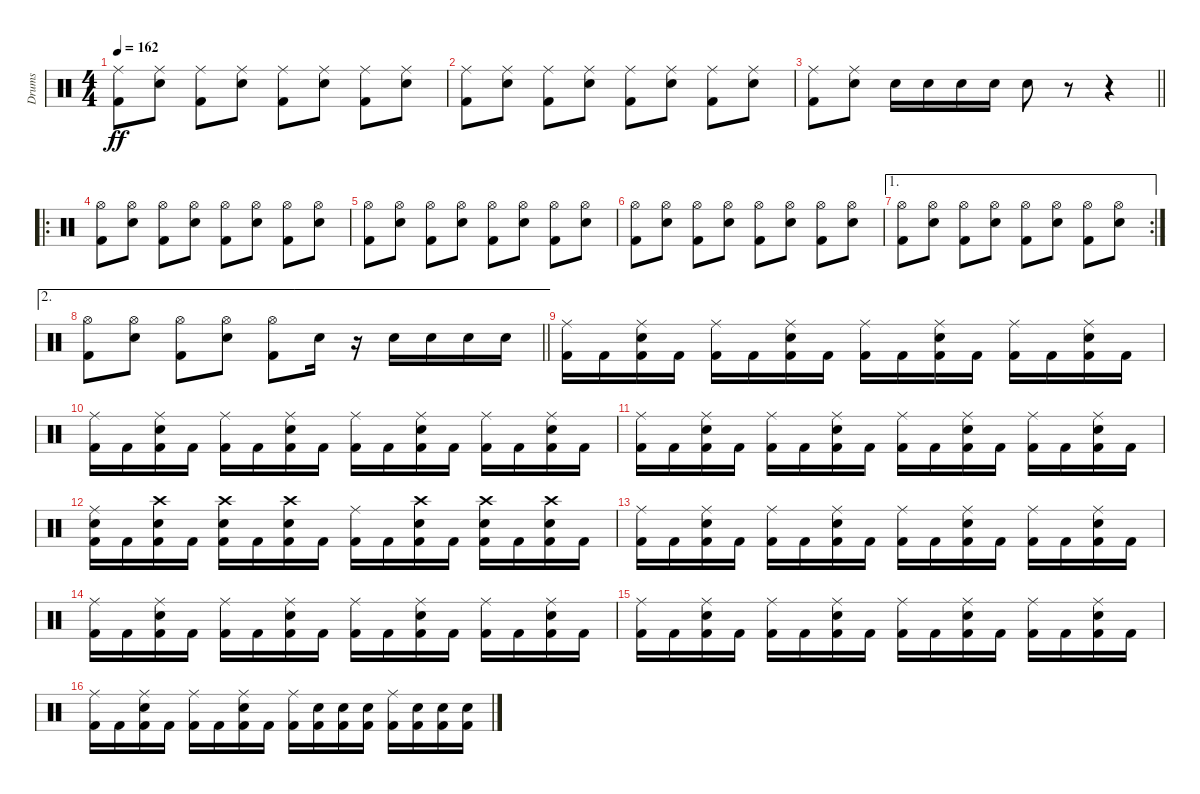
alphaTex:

\track ("Drums" "Drums") {instrument percussion}
\staff {score}
\articulation defaults
\ts (4 4)
\tempo 162
\clef neutral
\ks c
("Ride (middle)" "Kick (hit) 2").8{dy ff} ("Ride (middle)" "Electric Snare (hit)").8 ("Ride (middle)" "Kick (hit) 2").8 ("Ride (middle)" "Electric Snare (hit)").8 ("Ride (middle)" "Kick (hit) 2").8 ("Ride (middle)" "Electric Snare (hit)").8 ("Ride (middle)" "Kick (hit) 2").8 ("Ride (middle)" "Electric Snare (hit)").8 |
("Ride (middle)" "Kick (hit) 2").8 ("Ride (middle)" "Electric Snare (hit)").8 ("Ride (middle)" "Kick (hit) 2").8 ("Ride (middle)" "Electric Snare (hit)").8 ("Ride (middle)" "Kick (hit) 2").8 ("Ride (middle)" "Electric Snare (hit)").8 ("Ride (middle)" "Kick (hit) 2").8 ("Ride (middle)" "Electric Snare (hit)").8 |
\barLineRight lightlight
("Ride (middle)" "Kick (hit) 2").8 ("Ride (middle)" "Electric Snare (hit)").8 "Electric Snare (hit)".16 "Electric Snare (hit)".16 "Electric Snare (hit)".16 "Electric Snare (hit)".16 "Electric Snare (hit)".8 r.8 r.4 |
\ro
("Hi-Hat (open)" "Kick (hit) 2").8 ("Hi-Hat (open)" "Electric Snare (hit)").8 ("Hi-Hat (open)" "Kick (hit) 2").8 ("Hi-Hat (open)" "Electric Snare (hit)").8 ("Hi-Hat (open)" "Kick (hit) 2").8 ("Hi-Hat (open)" "Electric Snare (hit)").8 ("Hi-Hat (open)" "Kick (hit) 2").8 ("Hi-Hat (open)" "Electric Snare (hit)").8 |
("Hi-Hat (open)" "Kick (hit) 2").8 ("Hi-Hat (open)" "Electric Snare (hit)").8 ("Hi-Hat (open)" "Kick (hit) 2").8 ("Hi-Hat (open)" "Electric Snare (hit)").8 ("Hi-Hat (open)" "Kick (hit) 2").8 ("Hi-Hat (open)" "Electric Snare (hit)").8 ("Hi-Hat (open)" "Kick (hit) 2").8 ("Hi-Hat (open)" "Electric Snare (hit)").8 |
("Hi-Hat (open)" "Kick (hit) 2").8 ("Hi-Hat (open)" "Electric Snare (hit)").8 ("Hi-Hat (open)" "Kick (hit) 2").8 ("Hi-Hat (open)" "Electric Snare (hit)").8 ("Hi-Hat (open)" "Kick (hit) 2").8 ("Hi-Hat (open)" "Electric Snare (hit)").8 ("Hi-Hat (open)" "Kick (hit) 2").8 ("Hi-Hat (open)" "Electric Snare (hit)").8 |
\ae 1
\rc 2
("Hi-Hat (open)" "Kick (hit) 2").8 ("Hi-Hat (open)" "Electric Snare (hit)").8 ("Hi-Hat (open)" "Kick (hit) 2").8 ("Hi-Hat (open)" "Electric Snare (hit)").8 ("Hi-Hat (open)" "Kick (hit) 2").8 ("Hi-Hat (open)" "Electric Snare (hit)").8 ("Hi-Hat (open)" "Kick (hit) 2").8 ("Hi-Hat (open)" "Electric Snare (hit)").8 |
\ae 2
\barLineRight lightlight
("Hi-Hat (open)" "Kick (hit) 2").8 ("Hi-Hat (open)" "Electric Snare (hit)").8 ("Hi-Hat (open)" "Kick (hit) 2").8 ("Hi-Hat (open)" "Electric Snare (hit)").8 ("Hi-Hat (open)" "Kick (hit) 2").8 "Electric Snare (hit)".16 r.16 "Electric Snare (hit)".16 "Electric Snare (hit)".16 "Electric Snare (hit)".16 "Electric Snare (hit)".16 |
("Ride (middle)" "Kick (hit) 2").16 "Kick (hit) 2".16 ("Ride (middle)" "Electric Snare (hit)" "Kick (hit) 2").16 "Kick (hit) 2".16 ("Ride (middle)" "Kick (hit) 2").16 "Kick (hit) 2".16 ("Ride (middle)" "Electric Snare (hit)" "Kick (hit) 2").16 "Kick (hit) 2".16 ("Ride (middle)" "Kick (hit) 2").16 "Kick (hit) 2".16 ("Ride (middle)" "Electric Snare (hit)" "Kick (hit) 2").16 "Kick (hit) 2".16 ("Ride (middle)" "Kick (hit) 2").16 "Kick (hit) 2".16 ("Ride (middle)" "Electric Snare (hit)" "Kick (hit) 2").16 "Kick (hit) 2".16 |
("Ride (middle)" "Kick (hit) 2").16 "Kick (hit) 2".16 ("Ride (middle)" "Electric Snare (hit)" "Kick (hit) 2").16 "Kick (hit) 2".16 ("Ride (middle)" "Kick (hit) 2").16 "Kick (hit) 2".16 ("Ride (middle)" "Electric Snare (hit)" "Kick (hit) 2").16 "Kick (hit) 2".16 ("Ride (middle)" "Kick (hit) 2").16 "Kick (hit) 2".16 ("Ride (middle)" "Electric Snare (hit)" "Kick (hit) 2").16 "Kick (hit) 2".16 ("Ride (middle)" "Kick (hit) 2").16 "Kick (hit) 2".16 ("Ride (middle)" "Electric Snare (hit)" "Kick (hit) 2").16 "Kick (hit) 2".16 |
("Ride (middle)" "Kick (hit) 2").16 "Kick (hit) 2".16 ("Ride (middle)" "Electric Snare (hit)" "Kick (hit) 2").16 "Kick (hit) 2".16 ("Ride (middle)" "Kick (hit) 2").16 "Kick (hit) 2".16 ("Ride (middle)" "Electric Snare (hit)" "Kick (hit) 2").16 "Kick (hit) 2".16 ("Ride (middle)" "Kick (hit) 2").16 "Kick (hit) 2".16 ("Ride (middle)" "Electric Snare (hit)" "Kick (hit) 2").16 "Kick (hit) 2".16 ("Ride (middle)" "Kick (hit) 2").16 "Kick (hit) 2".16 ("Ride (middle)" "Electric Snare (hit)" "Kick (hit) 2").16 "Kick (hit) 2".16 |
("Ride (middle)" "Electric Snare (hit)" "Kick (hit) 2").16 "Kick (hit) 2".16 ("Crash high (hit)" "Electric Snare (hit)" "Kick (hit) 2").16 "Kick (hit) 2".16 ("Crash high (hit)" "Electric Snare (hit)" "Kick (hit) 2").16 "Kick (hit) 2".16 ("Crash high (hit)" "Electric Snare (hit)" "Kick (hit) 2").16 "Kick (hit) 2".16 ("Ride (middle)" "Kick (hit) 2").16 "Kick (hit) 2".16 ("Crash high (hit)" "Electric Snare (hit)" "Kick (hit) 2").16 "Kick (hit) 2".16 ("Crash high (hit)" "Electric Snare (hit)" "Kick (hit) 2").16 "Kick (hit) 2".16 ("Crash high (hit)" "Electric Snare (hit)" "Kick (hit) 2").16 "Kick (hit) 2".16 |
("Ride (middle)" "Kick (hit) 2").16 "Kick (hit) 2".16 ("Ride (middle)" "Electric Snare (hit)" "Kick (hit) 2").16 "Kick (hit) 2".16 ("Ride (middle)" "Kick (hit) 2").16 "Kick (hit) 2".16 ("Ride (middle)" "Electric Snare (hit)" "Kick (hit) 2").16 "Kick (hit) 2".16 ("Ride (middle)" "Kick (hit) 2").16 "Kick (hit) 2".16 ("Ride (middle)" "Electric Snare (hit)" "Kick (hit) 2").16 "Kick (hit) 2".16 ("Ride (middle)" "Kick (hit) 2").16 "Kick (hit) 2".16 ("Ride (middle)" "Electric Snare (hit)" "Kick (hit) 2").16 "Kick (hit) 2".16 |
("Ride (middle)" "Kick (hit) 2").16 "Kick (hit) 2".16 ("Ride (middle)" "Electric Snare (hit)" "Kick (hit) 2").16 "Kick (hit) 2".16 ("Ride (middle)" "Kick (hit) 2").16 "Kick (hit) 2".16 ("Ride (middle)" "Electric Snare (hit)" "Kick (hit) 2").16 "Kick (hit) 2".16 ("Ride (middle)" "Kick (hit) 2").16 "Kick (hit) 2".16 ("Ride (middle)" "Electric Snare (hit)" "Kick (hit) 2").16 "Kick (hit) 2".16 ("Ride (middle)" "Kick (hit) 2").16 "Kick (hit) 2".16 ("Ride (middle)" "Electric Snare (hit)" "Kick (hit) 2").16 "Kick (hit) 2".16 |
("Ride (middle)" "Kick (hit) 2").16 "Kick (hit) 2".16 ("Ride (middle)" "Electric Snare (hit)" "Kick (hit) 2").16 "Kick (hit) 2".16 ("Ride (middle)" "Kick (hit) 2").16 "Kick (hit) 2".16 ("Ride (middle)" "Electric Snare (hit)" "Kick (hit) 2").16 "Kick (hit) 2".16 ("Ride (middle)" "Kick (hit) 2").16 "Kick (hit) 2".16 ("Ride (middle)" "Electric Snare (hit)" "Kick (hit) 2").16 "Kick (hit) 2".16 ("Ride (middle)" "Kick (hit) 2").16 "Kick (hit) 2".16 ("Ride (middle)" "Electric Snare (hit)" "Kick (hit) 2").16 "Kick (hit) 2".16 |
("Ride (middle)" "Kick (hit) 2").16 "Kick (hit) 2".16 ("Ride (middle)" "Electric Snare (hit)" "Kick (hit) 2").16 "Kick (hit) 2".16 ("Ride (middle)" "Kick (hit) 2").16 "Kick (hit) 2".16 ("Ride (middle)" "Electric Snare (hit)" "Kick (hit) 2").16 "Kick (hit) 2".16 ("Ride (middle)" "Kick (hit) 2").16 ("Electric Snare (hit)" "Kick (hit) 2").16 ("Electric Snare (hit)" "Kick (hit) 2").16 ("Electric Snare (hit)" "Kick (hit) 2").16 ("Ride (middle)" "Kick (hit) 2").16 ("Electric Snare (hit)" "Kick (hit) 2").16 ("Electric Snare (hit)" "Kick (hit) 2").16 ("Electric Snare (hit)" "Kick (hit) 2").16
